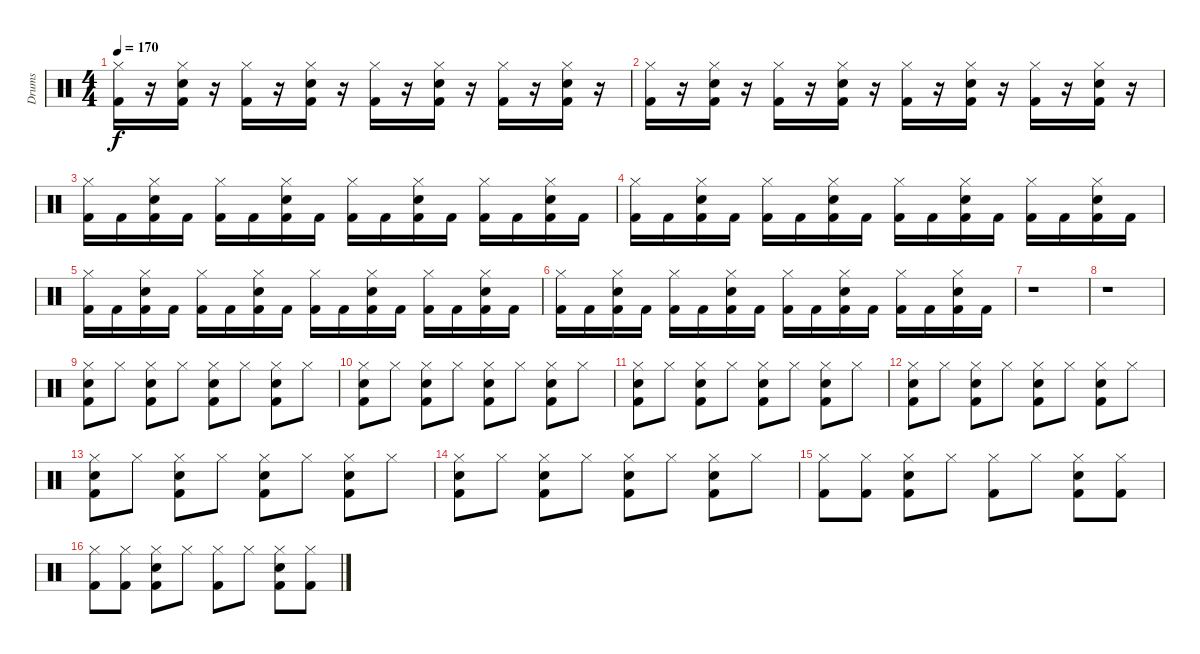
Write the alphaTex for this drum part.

\track ("Drums" "Drums") {instrument percussion}
\staff {score}
\articulation defaults
\ts (4 4)
\tempo 170
\clef neutral
\ks c
("Kick (hit) 2" "Hi-Hat (closed)").16{dy f} r.16 ("Kick (hit) 2" "Hi-Hat (closed)" "Electric Snare (hit)").16 r.16 ("Kick (hit) 2" "Hi-Hat (closed)").16 r.16 ("Kick (hit) 2" "Hi-Hat (closed)" "Electric Snare (hit)").16 r.16 ("Kick (hit) 2" "Hi-Hat (closed)").16 r.16 ("Kick (hit) 2" "Hi-Hat (closed)" "Electric Snare (hit)").16 r.16 ("Kick (hit) 2" "Hi-Hat (closed)").16 r.16 ("Kick (hit) 2" "Hi-Hat (closed)" "Electric Snare (hit)").16 r.16 |
("Kick (hit) 2" "Hi-Hat (closed)").16 r.16 ("Kick (hit) 2" "Hi-Hat (closed)" "Electric Snare (hit)").16 r.16 ("Kick (hit) 2" "Hi-Hat (closed)").16 r.16 ("Kick (hit) 2" "Hi-Hat (closed)" "Electric Snare (hit)").16 r.16 ("Kick (hit) 2" "Hi-Hat (closed)").16 r.16 ("Kick (hit) 2" "Hi-Hat (closed)" "Electric Snare (hit)").16 r.16 ("Kick (hit) 2" "Hi-Hat (closed)").16 r.16 ("Kick (hit) 2" "Hi-Hat (closed)" "Electric Snare (hit)").16 r.16 |
("Kick (hit) 2" "Hi-Hat (closed)").16 "Kick (hit) 2".16 ("Kick (hit) 2" "Hi-Hat (closed)" "Electric Snare (hit)").16 "Kick (hit) 2".16 ("Kick (hit) 2" "Hi-Hat (closed)").16 "Kick (hit) 2".16 ("Kick (hit) 2" "Hi-Hat (closed)" "Electric Snare (hit)").16 "Kick (hit) 2".16 ("Kick (hit) 2" "Hi-Hat (closed)").16 "Kick (hit) 2".16 ("Kick (hit) 2" "Hi-Hat (closed)" "Electric Snare (hit)").16 "Kick (hit) 2".16 ("Kick (hit) 2" "Hi-Hat (closed)").16 "Kick (hit) 2".16 ("Kick (hit) 2" "Hi-Hat (closed)" "Electric Snare (hit)").16 "Kick (hit) 2".16 |
("Kick (hit) 2" "Hi-Hat (closed)").16 "Kick (hit) 2".16 ("Kick (hit) 2" "Hi-Hat (closed)" "Electric Snare (hit)").16 "Kick (hit) 2".16 ("Kick (hit) 2" "Hi-Hat (closed)").16 "Kick (hit) 2".16 ("Kick (hit) 2" "Hi-Hat (closed)" "Electric Snare (hit)").16 "Kick (hit) 2".16 ("Kick (hit) 2" "Hi-Hat (closed)").16 "Kick (hit) 2".16 ("Kick (hit) 2" "Hi-Hat (closed)" "Electric Snare (hit)").16 "Kick (hit) 2".16 ("Kick (hit) 2" "Hi-Hat (closed)").16 "Kick (hit) 2".16 ("Kick (hit) 2" "Hi-Hat (closed)" "Electric Snare (hit)").16 "Kick (hit) 2".16 |
("Kick (hit) 2" "Hi-Hat (closed)").16 "Kick (hit) 2".16 ("Kick (hit) 2" "Hi-Hat (closed)" "Electric Snare (hit)").16 "Kick (hit) 2".16 ("Kick (hit) 2" "Hi-Hat (closed)").16 "Kick (hit) 2".16 ("Kick (hit) 2" "Hi-Hat (closed)" "Electric Snare (hit)").16 "Kick (hit) 2".16 ("Kick (hit) 2" "Hi-Hat (closed)").16 "Kick (hit) 2".16 ("Kick (hit) 2" "Hi-Hat (closed)" "Electric Snare (hit)").16 "Kick (hit) 2".16 ("Kick (hit) 2" "Hi-Hat (closed)").16 "Kick (hit) 2".16 ("Kick (hit) 2" "Hi-Hat (closed)" "Electric Snare (hit)").16 "Kick (hit) 2".16 |
("Kick (hit) 2" "Hi-Hat (closed)").16 "Kick (hit) 2".16 ("Kick (hit) 2" "Hi-Hat (closed)" "Electric Snare (hit)").16 "Kick (hit) 2".16 ("Kick (hit) 2" "Hi-Hat (closed)").16 "Kick (hit) 2".16 ("Kick (hit) 2" "Hi-Hat (closed)" "Electric Snare (hit)").16 "Kick (hit) 2".16 ("Kick (hit) 2" "Hi-Hat (closed)").16 "Kick (hit) 2".16 ("Kick (hit) 2" "Hi-Hat (closed)" "Electric Snare (hit)").16 "Kick (hit) 2".16 ("Kick (hit) 2" "Hi-Hat (closed)").16 "Kick (hit) 2".16 ("Kick (hit) 2" "Hi-Hat (closed)" "Electric Snare (hit)").16 "Kick (hit) 2".16 |
r.1 |
r.1 |
("Hi-Hat (closed)" "Electric Snare (hit)" "Kick (hit) 2").8 "Hi-Hat (closed)".8 ("Hi-Hat (closed)" "Electric Snare (hit)" "Kick (hit) 2").8 "Hi-Hat (closed)".8 ("Hi-Hat (closed)" "Electric Snare (hit)" "Kick (hit) 2").8 "Hi-Hat (closed)".8 ("Hi-Hat (closed)" "Electric Snare (hit)" "Kick (hit) 2").8 "Hi-Hat (closed)".8 |
("Hi-Hat (closed)" "Electric Snare (hit)" "Kick (hit) 2").8 "Hi-Hat (closed)".8 ("Hi-Hat (closed)" "Electric Snare (hit)" "Kick (hit) 2").8 "Hi-Hat (closed)".8 ("Hi-Hat (closed)" "Electric Snare (hit)" "Kick (hit) 2").8 "Hi-Hat (closed)".8 ("Hi-Hat (closed)" "Electric Snare (hit)" "Kick (hit) 2").8 "Hi-Hat (closed)".8 |
("Hi-Hat (closed)" "Electric Snare (hit)" "Kick (hit) 2").8 "Hi-Hat (closed)".8 ("Hi-Hat (closed)" "Electric Snare (hit)" "Kick (hit) 2").8 "Hi-Hat (closed)".8 ("Hi-Hat (closed)" "Electric Snare (hit)" "Kick (hit) 2").8 "Hi-Hat (closed)".8 ("Hi-Hat (closed)" "Electric Snare (hit)" "Kick (hit) 2").8 "Hi-Hat (closed)".8 |
("Hi-Hat (closed)" "Electric Snare (hit)" "Kick (hit) 2").8 "Hi-Hat (closed)".8 ("Hi-Hat (closed)" "Electric Snare (hit)" "Kick (hit) 2").8 "Hi-Hat (closed)".8 ("Hi-Hat (closed)" "Electric Snare (hit)" "Kick (hit) 2").8 "Hi-Hat (closed)".8 ("Hi-Hat (closed)" "Electric Snare (hit)" "Kick (hit) 2").8 "Hi-Hat (closed)".8 |
("Hi-Hat (closed)" "Electric Snare (hit)" "Kick (hit) 2").8 "Hi-Hat (closed)".8 ("Hi-Hat (closed)" "Electric Snare (hit)" "Kick (hit) 2").8 "Hi-Hat (closed)".8 ("Hi-Hat (closed)" "Electric Snare (hit)" "Kick (hit) 2").8 "Hi-Hat (closed)".8 ("Hi-Hat (closed)" "Electric Snare (hit)" "Kick (hit) 2").8 "Hi-Hat (closed)".8 |
("Hi-Hat (closed)" "Electric Snare (hit)" "Kick (hit) 2").8 "Hi-Hat (closed)".8 ("Hi-Hat (closed)" "Electric Snare (hit)" "Kick (hit) 2").8 "Hi-Hat (closed)".8 ("Hi-Hat (closed)" "Electric Snare (hit)" "Kick (hit) 2").8 "Hi-Hat (closed)".8 ("Hi-Hat (closed)" "Electric Snare (hit)" "Kick (hit) 2").8 "Hi-Hat (closed)".8 |
("Hi-Hat (closed)" "Kick (hit) 2").8 ("Hi-Hat (closed)" "Kick (hit) 2").8 ("Hi-Hat (closed)" "Electric Snare (hit)" "Kick (hit) 2").8 "Hi-Hat (closed)".8 ("Hi-Hat (closed)" "Kick (hit) 2").8 "Hi-Hat (closed)".8 ("Hi-Hat (closed)" "Electric Snare (hit)" "Kick (hit) 2").8 ("Hi-Hat (closed)" "Kick (hit) 2").8 |
("Hi-Hat (closed)" "Kick (hit) 2").8 ("Hi-Hat (closed)" "Kick (hit) 2").8 ("Hi-Hat (closed)" "Electric Snare (hit)" "Kick (hit) 2").8 "Hi-Hat (closed)".8 ("Hi-Hat (closed)" "Kick (hit) 2").8 "Hi-Hat (closed)".8 ("Hi-Hat (closed)" "Electric Snare (hit)" "Kick (hit) 2").8 ("Hi-Hat (closed)" "Kick (hit) 2").8
